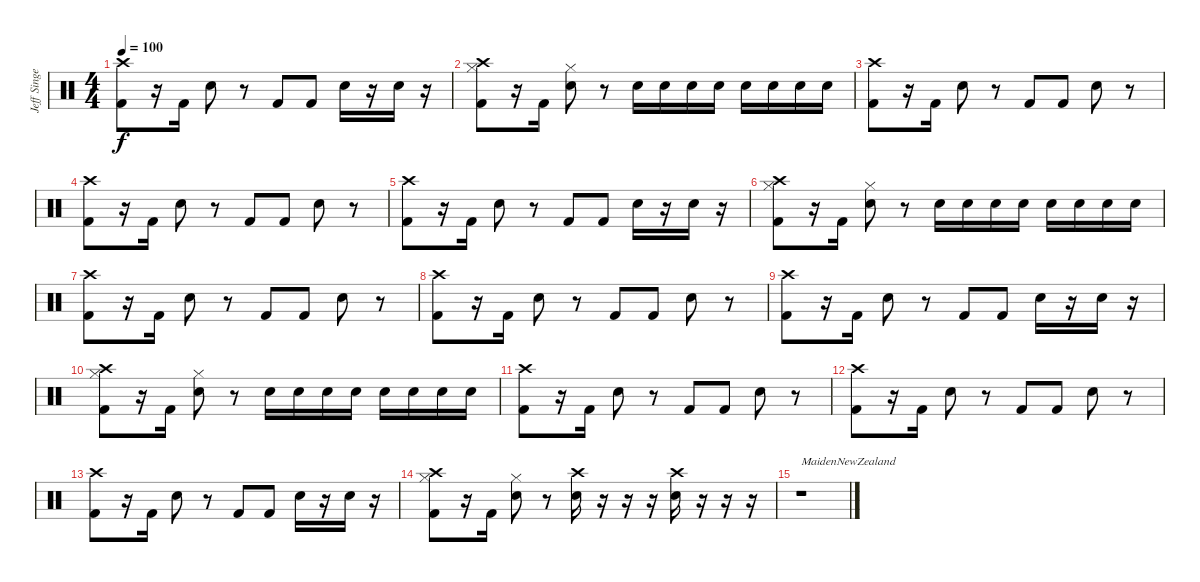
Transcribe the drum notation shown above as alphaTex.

\track ("Jeff Singer" "Jeff Singe") {instrument percussion}
\staff {score}
\articulation defaults
\ts (4 4)
\tempo 100
\clef neutral
\ks c
("Kick (hit) 2" "Crash high (hit)").8{dy f} r.16 "Kick (hit) 2".16 "Snare (hit) 2".8 r.8 "Kick (hit) 2".8 "Kick (hit) 2".8 "Snare (hit) 2".16 r.16 "Snare (hit) 2".16 r.16 |
("Hi-Hat (closed)" "Kick (hit) 2" "Crash high (hit)").8 r.16 "Kick (hit) 2".16 ("Hi-Hat (closed)" "Snare (hit) 2").8 r.8 "Snare (hit) 2".16 "Snare (hit) 2".16 "Snare (hit) 2".16 "Snare (hit) 2".16 "Snare (hit) 2".16 "Snare (hit) 2".16 "Snare (hit) 2".16 "Snare (hit) 2".16 |
("Kick (hit) 2" "Crash high (hit)").8 r.16 "Kick (hit) 2".16 "Snare (hit) 2".8 r.8 "Kick (hit) 2".8 "Kick (hit) 2".8 "Snare (hit) 2".8 r.8 |
("Kick (hit) 2" "Crash high (hit)").8 r.16 "Kick (hit) 2".16 "Snare (hit) 2".8 r.8 "Kick (hit) 2".8 "Kick (hit) 2".8 "Snare (hit) 2".8 r.8 |
("Kick (hit) 2" "Crash high (hit)").8 r.16 "Kick (hit) 2".16 "Snare (hit) 2".8 r.8 "Kick (hit) 2".8 "Kick (hit) 2".8 "Snare (hit) 2".16 r.16 "Snare (hit) 2".16 r.16 |
("Hi-Hat (closed)" "Kick (hit) 2" "Crash high (hit)").8 r.16 "Kick (hit) 2".16 ("Hi-Hat (closed)" "Snare (hit) 2").8 r.8 "Snare (hit) 2".16 "Snare (hit) 2".16 "Snare (hit) 2".16 "Snare (hit) 2".16 "Snare (hit) 2".16 "Snare (hit) 2".16 "Snare (hit) 2".16 "Snare (hit) 2".16 |
("Kick (hit) 2" "Crash high (hit)").8 r.16 "Kick (hit) 2".16 "Snare (hit) 2".8 r.8 "Kick (hit) 2".8 "Kick (hit) 2".8 "Snare (hit) 2".8 r.8 |
("Kick (hit) 2" "Crash high (hit)").8 r.16 "Kick (hit) 2".16 "Snare (hit) 2".8 r.8 "Kick (hit) 2".8 "Kick (hit) 2".8 "Snare (hit) 2".8 r.8 |
("Kick (hit) 2" "Crash high (hit)").8 r.16 "Kick (hit) 2".16 "Snare (hit) 2".8 r.8 "Kick (hit) 2".8 "Kick (hit) 2".8 "Snare (hit) 2".16 r.16 "Snare (hit) 2".16 r.16 |
("Hi-Hat (closed)" "Kick (hit) 2" "Crash high (hit)").8 r.16 "Kick (hit) 2".16 ("Hi-Hat (closed)" "Snare (hit) 2").8 r.8 "Snare (hit) 2".16 "Snare (hit) 2".16 "Snare (hit) 2".16 "Snare (hit) 2".16 "Snare (hit) 2".16 "Snare (hit) 2".16 "Snare (hit) 2".16 "Snare (hit) 2".16 |
("Kick (hit) 2" "Crash high (hit)").8 r.16 "Kick (hit) 2".16 "Snare (hit) 2".8 r.8 "Kick (hit) 2".8 "Kick (hit) 2".8 "Snare (hit) 2".8 r.8 |
("Kick (hit) 2" "Crash high (hit)").8 r.16 "Kick (hit) 2".16 "Snare (hit) 2".8 r.8 "Kick (hit) 2".8 "Kick (hit) 2".8 "Snare (hit) 2".8 r.8 |
("Kick (hit) 2" "Crash high (hit)").8 r.16 "Kick (hit) 2".16 "Snare (hit) 2".8 r.8 "Kick (hit) 2".8 "Kick (hit) 2".8 "Snare (hit) 2".16 r.16 "Snare (hit) 2".16 r.16 |
("Hi-Hat (closed)" "Kick (hit) 2" "Crash high (hit)").8 r.16 "Kick (hit) 2".16 ("Hi-Hat (closed)" "Snare (hit) 2").8 r.8 ("Snare (hit) 2" "Crash high (hit)").16 r.16 r.16 r.16 ("Snare (hit) 2" "Crash high (hit)").16 r.16 r.16 r.16 |
r.1{txt "MaidenNewZealand"}
